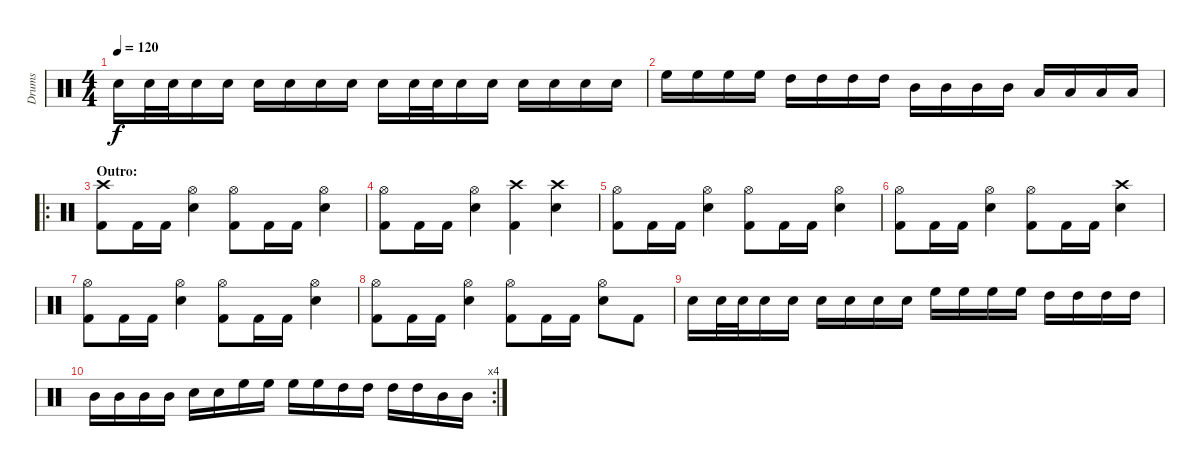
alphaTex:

\track ("Drums" "Drums") {instrument percussion}
\staff {score}
\articulation defaults
\ts (4 4)
\tempo 120
\clef neutral
\ks c "Electric Snare (hit)".16{dy f} "Electric Snare (hit)".32 "Electric Snare (hit)".32 "Electric Snare (hit)".16 "Electric Snare (hit)".16 "Electric Snare (hit)".16 "Electric Snare (hit)".16 "Electric Snare (hit)".16 "Electric Snare (hit)".16 "Electric Snare (hit)".16 "Electric Snare (hit)".32 "Electric Snare (hit)".32 "Electric Snare (hit)".16 "Electric Snare (hit)".16 "Electric Snare (hit)".16 "Electric Snare (hit)".16 "Electric Snare (hit)".16 "Electric Snare (hit)".16
|
"High Floor Tom (hit)".16 "High Floor Tom (hit)".16 "High Floor Tom (hit)".16 "High Floor Tom (hit)".16 "High Tom (hit)".16 "High Tom (hit)".16 "High Tom (hit)".16 "High Tom (hit)".16 "Mid Tom (hit)".16 "Mid Tom (hit)".16 "Mid Tom (hit)".16 "Mid Tom (hit)".16 "Low Tom (hit)".16 "Low Tom (hit)".16 "Low Tom (hit)".16 "Low Tom (hit)".16 |
\ro
\section ("" "Outro:")
("Crash high (hit)" "Kick (hit) 2").8 "Kick (hit) 2".16 "Kick (hit) 2".16 ("Hi-Hat (open)" "Electric Snare (hit)").4 ("Hi-Hat (open)" "Kick (hit) 2").8 "Kick (hit) 2".16 "Kick (hit) 2".16 ("Hi-Hat (open)" "Electric Snare (hit)").4 |
("Hi-Hat (open)" "Kick (hit) 2").8 "Kick (hit) 2".16 "Kick (hit) 2".16 ("Hi-Hat (open)" "Electric Snare (hit)").4 ("Crash high (hit)" "Kick (hit) 2").4 ("Crash high (hit)" "Electric Snare (hit)").4 |
("Hi-Hat (open)" "Kick (hit) 2").8 "Kick (hit) 2".16 "Kick (hit) 2".16 ("Hi-Hat (open)" "Electric Snare (hit)").4 ("Hi-Hat (open)" "Kick (hit) 2").8 "Kick (hit) 2".16 "Kick (hit) 2".16 ("Hi-Hat (open)" "Electric Snare (hit)").4 |
("Hi-Hat (open)" "Kick (hit) 2").8 "Kick (hit) 2".16 "Kick (hit) 2".16 ("Hi-Hat (open)" "Electric Snare (hit)").4 ("Hi-Hat (open)" "Kick (hit) 2").8 "Kick (hit) 2".16 "Kick (hit) 2".16 ("Crash high (hit)" "Electric Snare (hit)").4 |
("Hi-Hat (open)" "Kick (hit) 2").8 "Kick (hit) 2".16 "Kick (hit) 2".16 ("Hi-Hat (open)" "Electric Snare (hit)").4 ("Hi-Hat (open)" "Kick (hit) 2").8 "Kick (hit) 2".16 "Kick (hit) 2".16 ("Hi-Hat (open)" "Electric Snare (hit)").4 |
("Hi-Hat (open)" "Kick (hit) 2").8 "Kick (hit) 2".16 "Kick (hit) 2".16 ("Hi-Hat (open)" "Electric Snare (hit)").4 ("Hi-Hat (open)" "Kick (hit) 2").8 "Kick (hit) 2".16 "Kick (hit) 2".16 ("Hi-Hat (open)" "Electric Snare (hit)").8 "Kick (hit) 2".8 |
"Electric Snare (hit)".16 "Electric Snare (hit)".32 "Electric Snare (hit)".32 "Electric Snare (hit)".16 "Electric Snare (hit)".16 "Electric Snare (hit)".16 "Electric Snare (hit)".16 "Electric Snare (hit)".16 "Electric Snare (hit)".16 "High Floor Tom (hit)".16 "High Floor Tom (hit)".16 "High Floor Tom (hit)".16 "High Floor Tom (hit)".16 "High Tom (hit)".16 "High Tom (hit)".16 "High Tom (hit)".16 "High Tom (hit)".16 |
\rc 4 "Mid Tom (hit)".16 "Mid Tom (hit)".16 "Mid Tom (hit)".16 "Mid Tom (hit)".16 "Electric Snare (hit)".16 "Electric Snare (hit)".16 "High Floor Tom (hit)".16 "High Floor Tom (hit)".16 "High Floor Tom (hit)".16 "High Floor Tom (hit)".16 "High Tom (hit)".16 "High Tom (hit)".16 "High Tom (hit)".16 "High Tom (hit)".16 "Mid Tom (hit)".16 "Mid Tom (hit)".16
